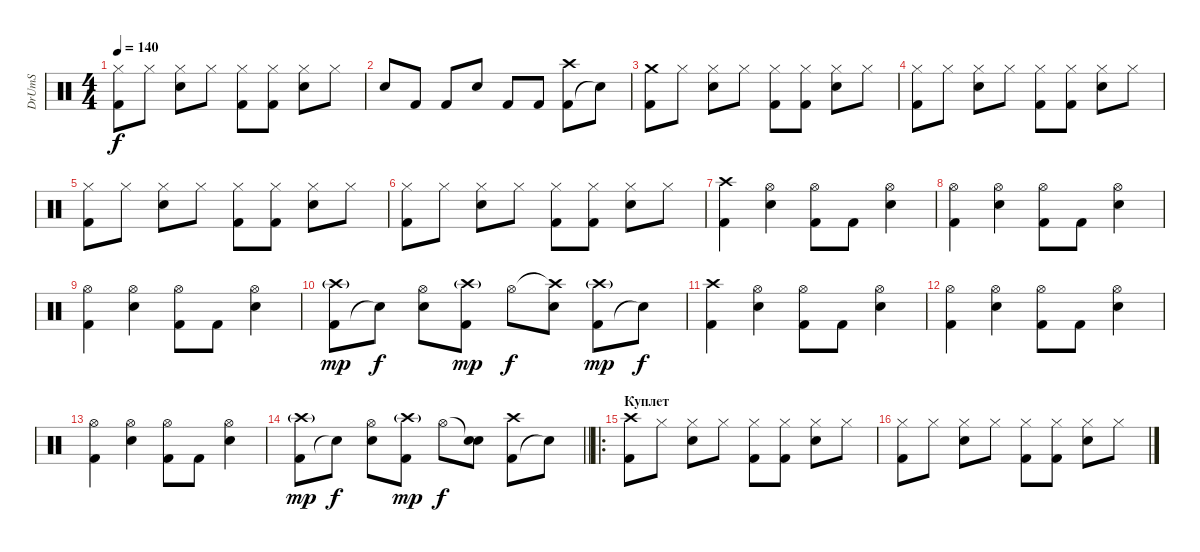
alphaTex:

\track ("DrUmS" "DrUmS") {instrument percussion}
\staff {score}
\articulation defaults
\ts (4 4)
\tempo 140
\clef neutral
\ks c
("Kick (hit) 2" "Hi-Hat (closed)").8{dy f} "Hi-Hat (closed)".8 ("Hi-Hat (closed)" "Snare (hit) 2").8 "Hi-Hat (closed)".8 ("Kick (hit) 2" "Hi-Hat (closed)").8 ("Kick (hit) 2" "Hi-Hat (closed)").8 ("Hi-Hat (closed)" "Snare (hit) 2").8 "Hi-Hat (closed)".8 |
"Snare (hit) 2".8 "Kick (hit) 2".8 "Kick (hit) 2".8 "Snare (hit) 2".8 "Kick (hit) 2".8 "Kick (hit) 2".8 ("Kick (hit) 2" "Crash high (hit)").8 "Snare (hit)"{t}.8 |
("Kick (hit) 2" "Crash medium (hit)").8 "Hi-Hat (closed)".8 ("Hi-Hat (closed)" "Snare (hit) 2").8 "Hi-Hat (closed)".8 ("Kick (hit) 2" "Hi-Hat (closed)").8 ("Kick (hit) 2" "Hi-Hat (closed)").8 ("Hi-Hat (closed)" "Snare (hit) 2").8 "Hi-Hat (closed)".8 |
("Kick (hit) 2" "Hi-Hat (closed)").8 "Hi-Hat (closed)".8 ("Hi-Hat (closed)" "Snare (hit) 2").8 "Hi-Hat (closed)".8 ("Kick (hit) 2" "Hi-Hat (closed)").8 ("Kick (hit) 2" "Hi-Hat (closed)").8 ("Hi-Hat (closed)" "Snare (hit) 2").8 "Hi-Hat (closed)".8 |
("Kick (hit) 2" "Hi-Hat (closed)").8 "Hi-Hat (closed)".8 ("Hi-Hat (closed)" "Snare (hit) 2").8 "Hi-Hat (closed)".8 ("Kick (hit) 2" "Hi-Hat (closed)").8 ("Kick (hit) 2" "Hi-Hat (closed)").8 ("Hi-Hat (closed)" "Snare (hit) 2").8 "Hi-Hat (closed)".8 |
("Kick (hit) 2" "Hi-Hat (closed)").8 "Hi-Hat (closed)".8 ("Hi-Hat (closed)" "Snare (hit) 2").8 "Hi-Hat (closed)".8 ("Kick (hit) 2" "Hi-Hat (closed)").8 ("Kick (hit) 2" "Hi-Hat (closed)").8 ("Hi-Hat (closed)" "Snare (hit) 2").8 "Hi-Hat (closed)".8 |
("Kick (hit) 2" "Crash high (hit)").4 ("Hi-Hat (open)" "Snare (hit) 2").4 ("Kick (hit) 2" "Hi-Hat (open)").8 "Kick (hit) 2".8 ("Hi-Hat (open)" "Snare (hit) 2").4 |
("Kick (hit) 2" "Hi-Hat (open)").4 ("Hi-Hat (open)" "Snare (hit) 2").4 ("Kick (hit) 2" "Hi-Hat (open)").8 "Kick (hit) 2".8 ("Hi-Hat (open)" "Snare (hit) 2").4 |
("Kick (hit) 2" "Hi-Hat (open)").4 ("Hi-Hat (open)" "Snare (hit) 2").4 ("Kick (hit) 2" "Hi-Hat (open)").8 "Kick (hit) 2".8 ("Hi-Hat (open)" "Snare (hit) 2").4 |
("Kick (hit) 2" "Crash high (hit)"{g}).8{dy mp} "Snare (hit)"{t}.8{dy f} ("Hi-Hat (open)" "Snare (hit) 2").8 ("Kick (hit) 2" "Crash high (hit)"{g}).8{dy mp} "Hi-Hat (open)".8{dy f} ("Crash high (hit)"{t} "Snare (hit) 2").8 ("Kick (hit) 2" "Crash high (hit)"{g}).8{dy mp} "Snare (hit)"{t}.8{dy f} |
("Kick (hit) 2" "Crash high (hit)").4 ("Hi-Hat (open)" "Snare (hit) 2").4 ("Kick (hit) 2" "Hi-Hat (open)").8 "Kick (hit) 2".8 ("Hi-Hat (open)" "Snare (hit) 2").4 |
("Kick (hit) 2" "Hi-Hat (open)").4 ("Hi-Hat (open)" "Snare (hit) 2").4 ("Kick (hit) 2" "Hi-Hat (open)").8 "Kick (hit) 2".8 ("Hi-Hat (open)" "Snare (hit) 2").4 |
("Kick (hit) 2" "Hi-Hat (open)").4 ("Hi-Hat (open)" "Snare (hit) 2").4 ("Kick (hit) 2" "Hi-Hat (open)").8 "Kick (hit) 2".8 ("Hi-Hat (open)" "Snare (hit) 2").4 |
\barLineRight lightlight
("Kick (hit) 2" "Crash high (hit)"{g}).8{dy mp} "Snare (hit)"{t}.8{dy f} ("Hi-Hat (open)" "Snare (hit) 2").8 ("Kick (hit) 2" "Crash high (hit)"{g}).8{dy mp} "Hi-Hat (open)".8{dy f} ("Snare (hit)"{t} "Snare (hit) 2").8 ("Kick (hit) 2" "Crash high (hit)").8 "Snare (hit)"{t}.8 |
\ro
\section ("" "Куплет")
("Kick (hit) 2" "Crash high (hit)").8 "Hi-Hat (closed)".8 ("Hi-Hat (closed)" "Snare (hit) 2").8 "Hi-Hat (closed)".8 ("Kick (hit) 2" "Hi-Hat (closed)").8 ("Kick (hit) 2" "Hi-Hat (closed)").8 ("Hi-Hat (closed)" "Snare (hit) 2").8 "Hi-Hat (closed)".8 |
("Kick (hit) 2" "Hi-Hat (closed)").8 "Hi-Hat (closed)".8 ("Hi-Hat (closed)" "Snare (hit) 2").8 "Hi-Hat (closed)".8 ("Kick (hit) 2" "Hi-Hat (closed)").8 ("Kick (hit) 2" "Hi-Hat (closed)").8 ("Hi-Hat (closed)" "Snare (hit) 2").8 "Hi-Hat (closed)".8
